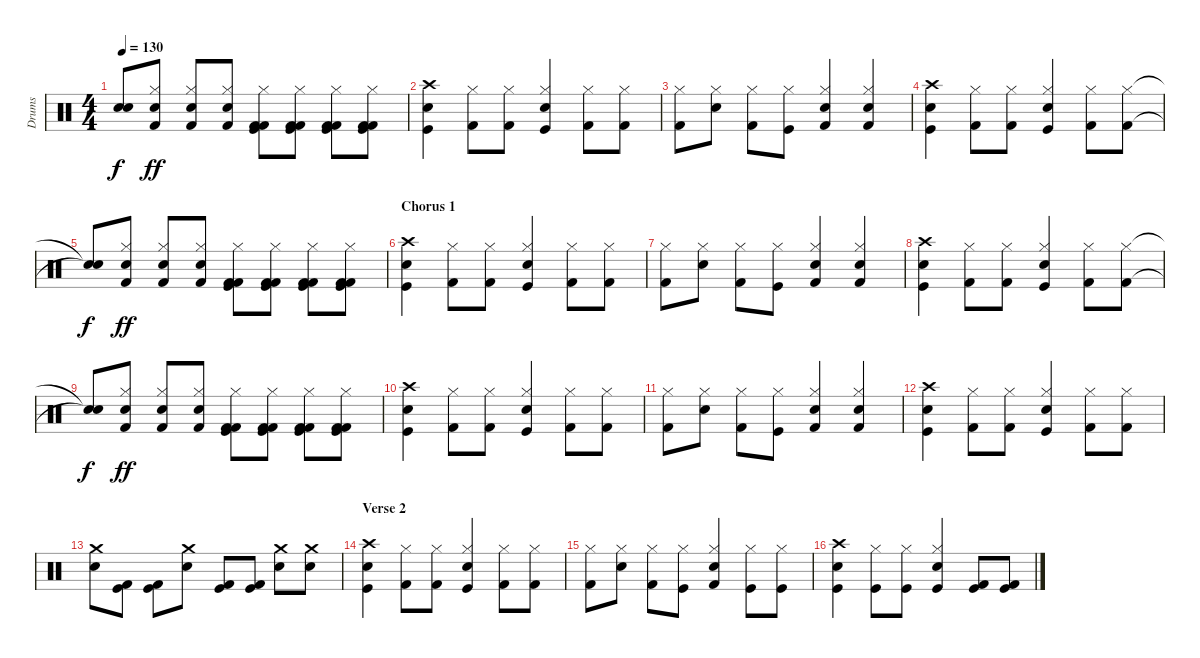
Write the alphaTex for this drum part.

\track ("Drums" "Drums") {instrument percussion}
\staff {score}
\articulation defaults
\ts (4 4)
\tempo 130
\clef neutral
\ks c
("Snare (hit)"{t} "Snare (hit)"{t}).8{dy f} ("Hi-Hat (closed)" "Snare (hit) 2" "Kick (hit) 2").8{dy ff} ("Hi-Hat (closed)" "Snare (hit) 2" "Kick (hit) 2").8 ("Hi-Hat (closed)" "Snare (hit) 2" "Kick (hit) 2").8 ("Hi-Hat (closed)" "Kick (hit) 2" "Kick (hit) 2" "Kick (hit)").8 ("Hi-Hat (closed)" "Kick (hit) 2" "Kick (hit) 2" "Kick (hit)").8 ("Hi-Hat (closed)" "Kick (hit) 2" "Kick (hit) 2" "Kick (hit)").8 ("Hi-Hat (closed)" "Kick (hit) 2" "Kick (hit) 2" "Kick (hit)").8 |
("Crash high (hit)" "Snare (hit) 2" "Kick (hit)").4 ("Hi-Hat (closed)" "Kick (hit) 2").8 ("Hi-Hat (closed)" "Kick (hit) 2").8 ("Hi-Hat (closed)" "Snare (hit) 2" "Kick (hit)").4 ("Hi-Hat (closed)" "Kick (hit) 2").8 ("Hi-Hat (closed)" "Kick (hit) 2").8 |
("Hi-Hat (closed)" "Kick (hit) 2").8 ("Hi-Hat (closed)" "Snare (hit) 2").8 ("Hi-Hat (closed)" "Kick (hit) 2").8 ("Hi-Hat (closed)" "Kick (hit)").8 ("Hi-Hat (closed)" "Kick (hit) 2" "Snare (hit) 2").4 ("Hi-Hat (closed)" "Kick (hit) 2" "Snare (hit) 2").4 |
("Crash high (hit)" "Snare (hit) 2" "Kick (hit)").4 ("Hi-Hat (closed)" "Kick (hit) 2").8 ("Hi-Hat (closed)" "Kick (hit) 2").8 ("Hi-Hat (closed)" "Snare (hit) 2" "Kick (hit)").4 ("Hi-Hat (closed)" "Kick (hit) 2").8 ("Hi-Hat (closed)" "Kick (hit) 2").8 |
("Snare (hit)"{t} "Snare (hit)"{t}).8{dy f} ("Hi-Hat (closed)" "Snare (hit) 2" "Kick (hit) 2").8{dy ff} ("Hi-Hat (closed)" "Snare (hit) 2" "Kick (hit) 2").8 ("Hi-Hat (closed)" "Snare (hit) 2" "Kick (hit) 2").8 ("Hi-Hat (closed)" "Kick (hit) 2" "Kick (hit) 2" "Kick (hit)").8 ("Hi-Hat (closed)" "Kick (hit) 2" "Kick (hit) 2" "Kick (hit)").8 ("Hi-Hat (closed)" "Kick (hit) 2" "Kick (hit) 2" "Kick (hit)").8 ("Hi-Hat (closed)" "Kick (hit) 2" "Kick (hit) 2" "Kick (hit)").8 |
\section ("" "Chorus 1")
("Crash high (hit)" "Snare (hit) 2" "Kick (hit)").4 ("Hi-Hat (closed)" "Kick (hit) 2").8 ("Hi-Hat (closed)" "Kick (hit) 2").8 ("Hi-Hat (closed)" "Snare (hit) 2" "Kick (hit)").4 ("Hi-Hat (closed)" "Kick (hit) 2").8 ("Hi-Hat (closed)" "Kick (hit) 2").8 |
("Hi-Hat (closed)" "Kick (hit) 2").8 ("Hi-Hat (closed)" "Snare (hit) 2").8 ("Hi-Hat (closed)" "Kick (hit) 2").8 ("Hi-Hat (closed)" "Kick (hit)").8 ("Hi-Hat (closed)" "Kick (hit) 2" "Snare (hit) 2").4 ("Hi-Hat (closed)" "Kick (hit) 2" "Snare (hit) 2").4 |
("Crash high (hit)" "Snare (hit) 2" "Kick (hit)").4 ("Hi-Hat (closed)" "Kick (hit) 2").8 ("Hi-Hat (closed)" "Kick (hit) 2").8 ("Hi-Hat (closed)" "Snare (hit) 2" "Kick (hit)").4 ("Hi-Hat (closed)" "Kick (hit) 2").8 ("Hi-Hat (closed)" "Kick (hit) 2").8 |
("Snare (hit)"{t} "Snare (hit)"{t}).8{dy f} ("Hi-Hat (closed)" "Snare (hit) 2" "Kick (hit) 2").8{dy ff} ("Hi-Hat (closed)" "Snare (hit) 2" "Kick (hit) 2").8 ("Hi-Hat (closed)" "Snare (hit) 2" "Kick (hit) 2").8 ("Hi-Hat (closed)" "Kick (hit) 2" "Kick (hit) 2" "Kick (hit)").8 ("Hi-Hat (closed)" "Kick (hit) 2" "Kick (hit) 2" "Kick (hit)").8 ("Hi-Hat (closed)" "Kick (hit) 2" "Kick (hit) 2" "Kick (hit)").8 ("Hi-Hat (closed)" "Kick (hit) 2" "Kick (hit) 2" "Kick (hit)").8 |
("Crash high (hit)" "Snare (hit) 2" "Kick (hit)").4 ("Hi-Hat (closed)" "Kick (hit) 2").8 ("Hi-Hat (closed)" "Kick (hit) 2").8 ("Hi-Hat (closed)" "Snare (hit) 2" "Kick (hit)").4 ("Hi-Hat (closed)" "Kick (hit) 2").8 ("Hi-Hat (closed)" "Kick (hit) 2").8 |
("Hi-Hat (closed)" "Kick (hit) 2").8 ("Hi-Hat (closed)" "Snare (hit) 2").8 ("Hi-Hat (closed)" "Kick (hit) 2").8 ("Hi-Hat (closed)" "Kick (hit)").8 ("Hi-Hat (closed)" "Kick (hit) 2" "Snare (hit) 2").4 ("Hi-Hat (closed)" "Kick (hit) 2" "Snare (hit) 2").4 |
("Crash high (hit)" "Snare (hit) 2" "Kick (hit)").4 ("Hi-Hat (closed)" "Kick (hit) 2").8 ("Hi-Hat (closed)" "Kick (hit) 2").8 ("Hi-Hat (closed)" "Snare (hit) 2" "Kick (hit)").4 ("Hi-Hat (closed)" "Kick (hit) 2").8 ("Hi-Hat (closed)" "Kick (hit) 2").8 |
("Crash medium (hit)" "Snare (hit) 2").8 ("Kick (hit) 2" "Kick (hit)").8 ("Kick (hit) 2" "Kick (hit)").8 ("Crash medium (hit)" "Snare (hit) 2").8 ("Kick (hit) 2" "Kick (hit)").8 ("Kick (hit) 2" "Kick (hit)").8 ("Crash medium (hit)" "Snare (hit) 2").8 ("Crash medium (hit)" "Snare (hit) 2").8 |
\section ("" "Verse 2")
("Crash high (hit)" "Snare (hit) 2" "Kick (hit)").4 ("Hi-Hat (closed)" "Kick (hit) 2").8 ("Hi-Hat (closed)" "Kick (hit) 2").8 ("Hi-Hat (closed)" "Snare (hit) 2" "Kick (hit)").4 ("Hi-Hat (closed)" "Kick (hit) 2").8 ("Hi-Hat (closed)" "Kick (hit) 2").8 |
("Hi-Hat (closed)" "Kick (hit) 2").8 ("Hi-Hat (closed)" "Snare (hit) 2").8 ("Hi-Hat (closed)" "Kick (hit) 2").8 ("Hi-Hat (closed)" "Kick (hit)").8 ("Hi-Hat (closed)" "Kick (hit) 2" "Snare (hit) 2").4 ("Hi-Hat (closed)" "Kick (hit)").8 ("Hi-Hat (closed)" "Kick (hit)").8 |
("Crash high (hit)" "Snare (hit) 2" "Kick (hit)").4 ("Hi-Hat (closed)" "Kick (hit)").8 ("Hi-Hat (closed)" "Kick (hit)").8 ("Hi-Hat (closed)" "Snare (hit) 2" "Kick (hit)").4 ("Kick (hit) 2" "Kick (hit)").8 ("Kick (hit) 2" "Kick (hit)").8
